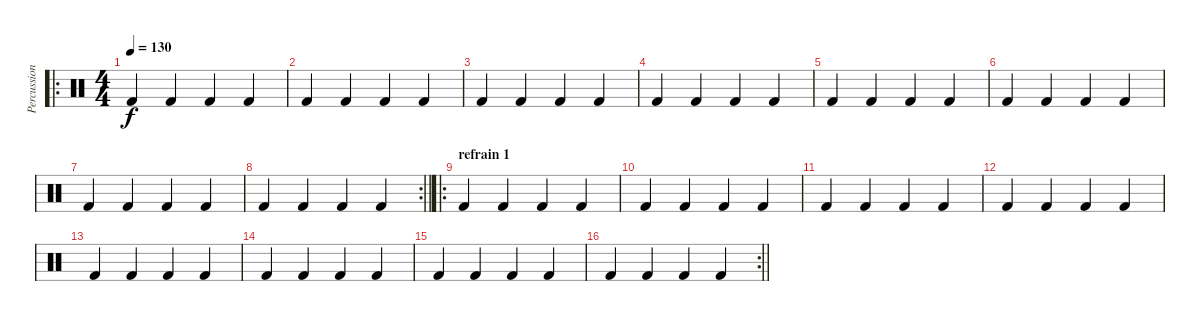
\track ("Percussions" "Percussion") {instrument percussion}
\staff {score}
\articulation defaults
\ro
\ts (4 4)
\tempo 130
\clef neutral
\ks c "Kick (hit) 2".4{dy f} "Kick (hit) 2".4 "Kick (hit) 2".4 "Kick (hit) 2".4
|
"Kick (hit) 2".4 "Kick (hit) 2".4 "Kick (hit) 2".4 "Kick (hit) 2".4 |
"Kick (hit) 2".4 "Kick (hit) 2".4 "Kick (hit) 2".4 "Kick (hit) 2".4 |
"Kick (hit) 2".4 "Kick (hit) 2".4 "Kick (hit) 2".4 "Kick (hit) 2".4 |
"Kick (hit) 2".4 "Kick (hit) 2".4 "Kick (hit) 2".4 "Kick (hit) 2".4 |
"Kick (hit) 2".4 "Kick (hit) 2".4 "Kick (hit) 2".4 "Kick (hit) 2".4 |
"Kick (hit) 2".4 "Kick (hit) 2".4 "Kick (hit) 2".4 "Kick (hit) 2".4 |
\rc 2
\barLineRight lightlight "Kick (hit) 2".4 "Kick (hit) 2".4 "Kick (hit) 2".4 "Kick (hit) 2".4
|
\ro
\section ("" "refrain 1")
"Kick (hit) 2".4 "Kick (hit) 2".4 "Kick (hit) 2".4 "Kick (hit) 2".4 |
"Kick (hit) 2".4 "Kick (hit) 2".4 "Kick (hit) 2".4 "Kick (hit) 2".4 |
"Kick (hit) 2".4 "Kick (hit) 2".4 "Kick (hit) 2".4 "Kick (hit) 2".4 |
"Kick (hit) 2".4 "Kick (hit) 2".4 "Kick (hit) 2".4 "Kick (hit) 2".4 |
"Kick (hit) 2".4 "Kick (hit) 2".4 "Kick (hit) 2".4 "Kick (hit) 2".4 |
"Kick (hit) 2".4 "Kick (hit) 2".4 "Kick (hit) 2".4 "Kick (hit) 2".4 |
"Kick (hit) 2".4 "Kick (hit) 2".4 "Kick (hit) 2".4 "Kick (hit) 2".4 |
\rc 2
\barLineRight lightlight "Kick (hit) 2".4 "Kick (hit) 2".4 "Kick (hit) 2".4 "Kick (hit) 2".4
